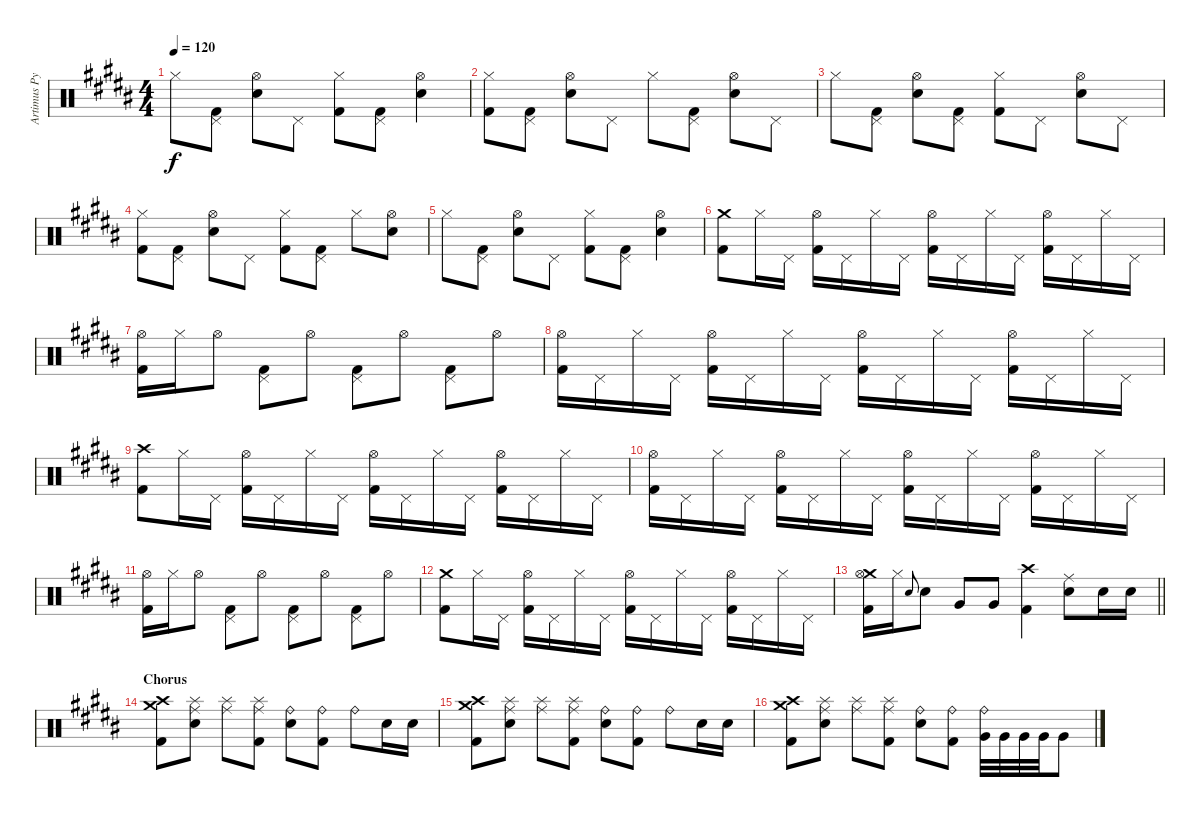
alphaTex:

\track ("Artimus Pyle - Drums" "Artimus Py") {instrument percussion}
\staff {score}
\articulation defaults
\ts (4 4)
\tempo 120
\clef neutral
\ks b "Hi-Hat (closed)".8{dy f}
("Pedal Hi-Hat (hit)" "Kick (hit) 2").8 ("Snare (hit) 2" "Hi-Hat (open)").8 "Pedal Hi-Hat (hit)".8 ("Hi-Hat (closed)" "Kick (hit) 2").8 ("Pedal Hi-Hat (hit)" "Kick (hit) 2").8 ("Snare (hit) 2" "Hi-Hat (open)").4 |
("Hi-Hat (closed)" "Kick (hit) 2").8 ("Pedal Hi-Hat (hit)" "Kick (hit) 2").8 ("Snare (hit) 2" "Hi-Hat (open)").8 "Pedal Hi-Hat (hit)".8 "Hi-Hat (closed)".8 ("Pedal Hi-Hat (hit)" "Kick (hit) 2").8 ("Snare (hit) 2" "Hi-Hat (open)").8 "Pedal Hi-Hat (hit)".8 |
"Hi-Hat (closed)".8 ("Pedal Hi-Hat (hit)" "Kick (hit) 2").8 ("Snare (hit) 2" "Hi-Hat (open)").8 ("Pedal Hi-Hat (hit)" "Kick (hit) 2").8 ("Hi-Hat (closed)" "Kick (hit) 2").8 "Pedal Hi-Hat (hit)".8 ("Snare (hit) 2" "Hi-Hat (open)").8 "Pedal Hi-Hat (hit)".8 |
("Hi-Hat (closed)" "Kick (hit) 2").8 ("Pedal Hi-Hat (hit)" "Kick (hit) 2").8 ("Snare (hit) 2" "Hi-Hat (open)").8 "Pedal Hi-Hat (hit)".8 ("Hi-Hat (closed)" "Kick (hit) 2").8 ("Pedal Hi-Hat (hit)" "Kick (hit) 2").8 "Hi-Hat (closed)".8 ("Snare (hit) 2" "Hi-Hat (open)").8 |
"Hi-Hat (closed)".8 ("Pedal Hi-Hat (hit)" "Kick (hit) 2").8 ("Snare (hit) 2" "Hi-Hat (open)").8 "Pedal Hi-Hat (hit)".8 ("Hi-Hat (closed)" "Kick (hit) 2").8 ("Pedal Hi-Hat (hit)" "Kick (hit) 2").8 ("Snare (hit) 2" "Hi-Hat (open)").4 |
("Crash medium (hit)" "Kick (hit) 2").8 "Hi-Hat (closed)".16 "Pedal Hi-Hat (hit)".16 ("Hi-Hat (open)" "Kick (hit) 2").16 "Pedal Hi-Hat (hit)".16 "Hi-Hat (closed)".16 "Pedal Hi-Hat (hit)".16 ("Hi-Hat (open)" "Kick (hit) 2").16 "Pedal Hi-Hat (hit)".16 "Hi-Hat (closed)".16 "Pedal Hi-Hat (hit)".16 ("Hi-Hat (open)" "Kick (hit) 2").16 "Pedal Hi-Hat (hit)".16 "Hi-Hat (closed)".16 "Pedal Hi-Hat (hit)".16 |
("Hi-Hat (open)" "Kick (hit) 2").16 "Hi-Hat (closed)".16 "Hi-Hat (open)".8 ("Pedal Hi-Hat (hit)" "Kick (hit) 2").8 "Hi-Hat (open)".8 ("Pedal Hi-Hat (hit)" "Kick (hit) 2").8 "Hi-Hat (open)".8 ("Pedal Hi-Hat (hit)" "Kick (hit) 2").8 "Hi-Hat (open)".8 |
("Hi-Hat (open)" "Kick (hit) 2").16 "Pedal Hi-Hat (hit)".16 "Hi-Hat (closed)".16 "Pedal Hi-Hat (hit)".16 ("Hi-Hat (open)" "Kick (hit) 2").16 "Pedal Hi-Hat (hit)".16 "Hi-Hat (closed)".16 "Pedal Hi-Hat (hit)".16 ("Hi-Hat (open)" "Kick (hit) 2").16 "Pedal Hi-Hat (hit)".16 "Hi-Hat (closed)".16 "Pedal Hi-Hat (hit)".16 ("Hi-Hat (open)" "Kick (hit) 2").16 "Pedal Hi-Hat (hit)".16 "Hi-Hat (closed)".16 "Pedal Hi-Hat (hit)".16 |
("Crash high (hit)" "Kick (hit) 2").8 "Hi-Hat (closed)".16 "Pedal Hi-Hat (hit)".16 ("Hi-Hat (open)" "Kick (hit) 2").16 "Pedal Hi-Hat (hit)".16 "Hi-Hat (closed)".16 "Pedal Hi-Hat (hit)".16 ("Hi-Hat (open)" "Kick (hit) 2").16 "Pedal Hi-Hat (hit)".16 "Hi-Hat (closed)".16 "Pedal Hi-Hat (hit)".16 ("Hi-Hat (open)" "Kick (hit) 2").16 "Pedal Hi-Hat (hit)".16 "Hi-Hat (closed)".16 "Pedal Hi-Hat (hit)".16 |
("Hi-Hat (open)" "Kick (hit) 2").16 "Pedal Hi-Hat (hit)".16 "Hi-Hat (closed)".16 "Pedal Hi-Hat (hit)".16 ("Hi-Hat (open)" "Kick (hit) 2").16 "Pedal Hi-Hat (hit)".16 "Hi-Hat (closed)".16 "Pedal Hi-Hat (hit)".16 ("Hi-Hat (open)" "Kick (hit) 2").16 "Pedal Hi-Hat (hit)".16 "Hi-Hat (closed)".16 "Pedal Hi-Hat (hit)".16 ("Hi-Hat (open)" "Kick (hit) 2").16 "Pedal Hi-Hat (hit)".16 "Hi-Hat (closed)".16 "Pedal Hi-Hat (hit)".16 |
("Hi-Hat (open)" "Kick (hit) 2").16 "Hi-Hat (closed)".16 "Hi-Hat (open)".8 ("Pedal Hi-Hat (hit)" "Kick (hit) 2").8 "Hi-Hat (open)".8 ("Pedal Hi-Hat (hit)" "Kick (hit) 2").8 "Hi-Hat (open)".8 ("Pedal Hi-Hat (hit)" "Kick (hit) 2").8 "Hi-Hat (open)".8 |
("Crash medium (hit)" "Kick (hit) 2").8 "Hi-Hat (closed)".16 "Pedal Hi-Hat (hit)".16 ("Hi-Hat (open)" "Kick (hit) 2").16 "Pedal Hi-Hat (hit)".16 "Hi-Hat (closed)".16 "Pedal Hi-Hat (hit)".16 ("Hi-Hat (open)" "Kick (hit) 2").16 "Pedal Hi-Hat (hit)".16 "Hi-Hat (closed)".16 "Pedal Hi-Hat (hit)".16 ("Hi-Hat (open)" "Kick (hit) 2").16 "Pedal Hi-Hat (hit)".16 "Hi-Hat (closed)".16 "Pedal Hi-Hat (hit)".16 |
\barLineRight lightlight
("Crash medium (hit)" "Hi-Hat (open)" "Kick (hit) 2").16 "Hi-Hat (closed)".16 "Snare (hit) 2".8{gr onbeat} "Snare (hit) 2".8 "Very Low Tom (hit)".8 "Very Low Tom (hit)".8 ("Crash high (hit)" "Kick (hit) 2").4 ("Ride (middle)" "Snare (hit) 2").8 "Snare (hit) 2".16 "Snare (hit) 2".16 |
\section ("" "Chorus")
("Crash high (hit)" "Crash medium (hit)" "Kick (hit) 2").8 ("Ride (middle)" "Splash (hit)" "Snare (hit) 2").8 ("Ride (middle)" "Splash (hit)").8 ("Ride (middle)" "Splash (hit)" "Kick (hit) 2").8 ("Ride (bell)" "Snare (hit) 2").8 ("Ride (bell)" "Kick (hit) 2").8 "Ride (bell)".8 "Snare (hit) 2".16 "Snare (hit) 2".16 |
("Crash high (hit)" "Crash medium (hit)" "Kick (hit) 2").8 ("Ride (middle)" "Splash (hit)" "Snare (hit) 2").8 ("Ride (middle)" "Splash (hit)").8 ("Ride (middle)" "Splash (hit)" "Kick (hit) 2").8 ("Ride (bell)" "Snare (hit) 2").8 ("Ride (bell)" "Kick (hit) 2").8 "Ride (bell)".8 "Snare (hit) 2".16 "Snare (hit) 2".16 |
("Crash high (hit)" "Crash medium (hit)" "Kick (hit) 2").8 ("Ride (middle)" "Splash (hit)" "Snare (hit) 2").8 ("Ride (middle)" "Splash (hit)").8 ("Ride (middle)" "Splash (hit)" "Kick (hit) 2").8 ("Ride (bell)" "Snare (hit) 2").8 ("Ride (bell)" "Kick (hit) 2").8 ("Ride (bell)" "Very Low Tom (hit)").32 "Very Low Tom (hit)".32 "Very Low Tom (hit)".32 "Very Low Tom (hit)".32 "Very Low Tom (hit)".8
